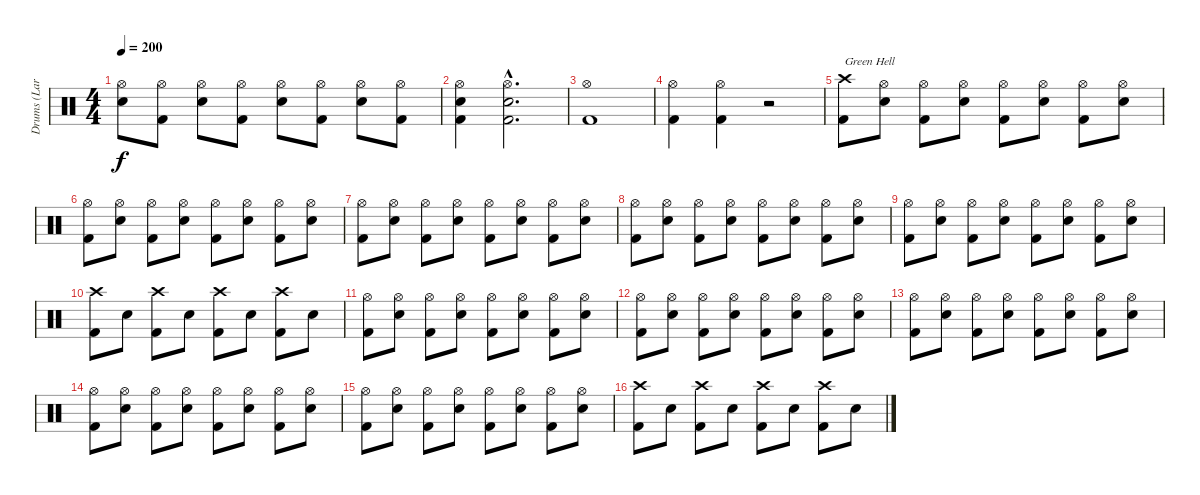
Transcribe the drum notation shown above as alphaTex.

\track ("Drums (Lars Ulrich)" "Drums (Lar") {instrument percussion}
\staff {score}
\articulation defaults
\ts (4 4)
\tempo 200
\clef neutral
\ks c
("Hi-Hat (open)" "Snare (hit) 2").8{dy f} ("Hi-Hat (open)" "Kick (hit) 2").8 ("Hi-Hat (open)" "Snare (hit) 2").8 ("Hi-Hat (open)" "Kick (hit) 2").8 ("Hi-Hat (open)" "Snare (hit) 2").8 ("Hi-Hat (open)" "Kick (hit) 2").8 ("Hi-Hat (open)" "Snare (hit) 2").8 ("Hi-Hat (open)" "Kick (hit) 2").8 |
("Hi-Hat (open)" "Snare (hit) 2" "Kick (hit) 2").4 ("Hi-Hat (open)"{hac} "Snare (hit) 2"{hac} "Kick (hit) 2"{hac}).2{d} |
("Hi-Hat (open)" "Kick (hit) 2").1 |
("Hi-Hat (open)" "Kick (hit) 2").4 ("Hi-Hat (open)" "Kick (hit) 2").4 r.2 |
("Crash high (hit)" "Kick (hit) 2").8{txt "Green Hell"} ("Hi-Hat (open)" "Snare (hit) 2").8 ("Hi-Hat (open)" "Kick (hit) 2").8 ("Hi-Hat (open)" "Snare (hit) 2").8 ("Hi-Hat (open)" "Kick (hit) 2").8 ("Hi-Hat (open)" "Snare (hit) 2").8 ("Hi-Hat (open)" "Kick (hit) 2").8 ("Hi-Hat (open)" "Snare (hit) 2").8 |
("Hi-Hat (open)" "Kick (hit) 2").8 ("Hi-Hat (open)" "Snare (hit) 2").8 ("Hi-Hat (open)" "Kick (hit) 2").8 ("Hi-Hat (open)" "Snare (hit) 2").8 ("Hi-Hat (open)" "Kick (hit) 2").8 ("Hi-Hat (open)" "Snare (hit) 2").8 ("Hi-Hat (open)" "Kick (hit) 2").8 ("Hi-Hat (open)" "Snare (hit) 2").8 |
("Hi-Hat (open)" "Kick (hit) 2").8 ("Hi-Hat (open)" "Snare (hit) 2").8 ("Hi-Hat (open)" "Kick (hit) 2").8 ("Hi-Hat (open)" "Snare (hit) 2").8 ("Hi-Hat (open)" "Kick (hit) 2").8 ("Hi-Hat (open)" "Snare (hit) 2").8 ("Hi-Hat (open)" "Kick (hit) 2").8 ("Hi-Hat (open)" "Snare (hit) 2").8 |
("Hi-Hat (open)" "Kick (hit) 2").8 ("Hi-Hat (open)" "Snare (hit) 2").8 ("Hi-Hat (open)" "Kick (hit) 2").8 ("Hi-Hat (open)" "Snare (hit) 2").8 ("Hi-Hat (open)" "Kick (hit) 2").8 ("Hi-Hat (open)" "Snare (hit) 2").8 ("Hi-Hat (open)" "Kick (hit) 2").8 ("Hi-Hat (open)" "Snare (hit) 2").8 |
("Hi-Hat (open)" "Kick (hit) 2").8 ("Hi-Hat (open)" "Snare (hit) 2").8 ("Hi-Hat (open)" "Kick (hit) 2").8 ("Hi-Hat (open)" "Snare (hit) 2").8 ("Hi-Hat (open)" "Kick (hit) 2").8 ("Hi-Hat (open)" "Snare (hit) 2").8 ("Hi-Hat (open)" "Kick (hit) 2").8 ("Hi-Hat (open)" "Snare (hit) 2").8 |
("Crash high (hit)" "Kick (hit) 2").8 "Snare (hit) 2".8 ("Crash high (hit)" "Kick (hit) 2").8 "Snare (hit) 2".8 ("Crash high (hit)" "Kick (hit) 2").8 "Snare (hit) 2".8 ("Crash high (hit)" "Kick (hit) 2").8 "Snare (hit) 2".8 |
("Hi-Hat (open)" "Kick (hit) 2").8 ("Hi-Hat (open)" "Snare (hit) 2").8 ("Hi-Hat (open)" "Kick (hit) 2").8 ("Hi-Hat (open)" "Snare (hit) 2").8 ("Hi-Hat (open)" "Kick (hit) 2").8 ("Hi-Hat (open)" "Snare (hit) 2").8 ("Hi-Hat (open)" "Kick (hit) 2").8 ("Hi-Hat (open)" "Snare (hit) 2").8 |
("Hi-Hat (open)" "Kick (hit) 2").8 ("Hi-Hat (open)" "Snare (hit) 2").8 ("Hi-Hat (open)" "Kick (hit) 2").8 ("Hi-Hat (open)" "Snare (hit) 2").8 ("Hi-Hat (open)" "Kick (hit) 2").8 ("Hi-Hat (open)" "Snare (hit) 2").8 ("Hi-Hat (open)" "Kick (hit) 2").8 ("Hi-Hat (open)" "Snare (hit) 2").8 |
("Hi-Hat (open)" "Kick (hit) 2").8 ("Hi-Hat (open)" "Snare (hit) 2").8 ("Hi-Hat (open)" "Kick (hit) 2").8 ("Hi-Hat (open)" "Snare (hit) 2").8 ("Hi-Hat (open)" "Kick (hit) 2").8 ("Hi-Hat (open)" "Snare (hit) 2").8 ("Hi-Hat (open)" "Kick (hit) 2").8 ("Hi-Hat (open)" "Snare (hit) 2").8 |
("Hi-Hat (open)" "Kick (hit) 2").8 ("Hi-Hat (open)" "Snare (hit) 2").8 ("Hi-Hat (open)" "Kick (hit) 2").8 ("Hi-Hat (open)" "Snare (hit) 2").8 ("Hi-Hat (open)" "Kick (hit) 2").8 ("Hi-Hat (open)" "Snare (hit) 2").8 ("Hi-Hat (open)" "Kick (hit) 2").8 ("Hi-Hat (open)" "Snare (hit) 2").8 |
("Hi-Hat (open)" "Kick (hit) 2").8 ("Hi-Hat (open)" "Snare (hit) 2").8 ("Hi-Hat (open)" "Kick (hit) 2").8 ("Hi-Hat (open)" "Snare (hit) 2").8 ("Hi-Hat (open)" "Kick (hit) 2").8 ("Hi-Hat (open)" "Snare (hit) 2").8 ("Hi-Hat (open)" "Kick (hit) 2").8 ("Hi-Hat (open)" "Snare (hit) 2").8 |
("Crash high (hit)" "Kick (hit) 2").8 "Snare (hit) 2".8 ("Crash high (hit)" "Kick (hit) 2").8 "Snare (hit) 2".8 ("Crash high (hit)" "Kick (hit) 2").8 "Snare (hit) 2".8 ("Crash high (hit)" "Kick (hit) 2").8 "Snare (hit) 2".8
